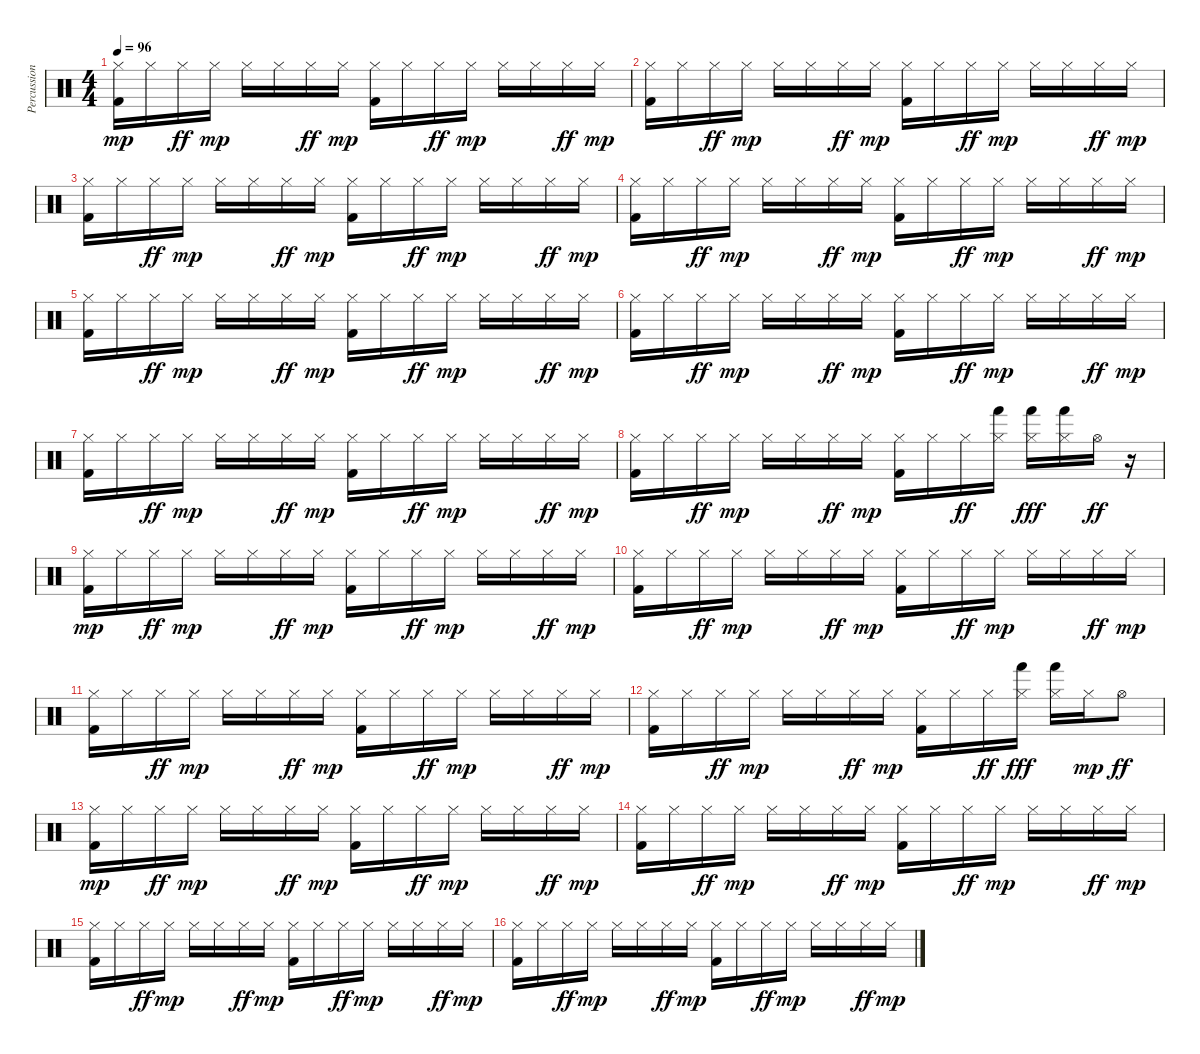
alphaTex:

\track ("Percussions" "Percussion") {instrument percussion}
\staff {score}
\articulation defaults
\ts (4 4)
\tempo 96
\clef neutral
\ks c
("Hi-Hat (closed)" "Kick (hit) 2").16{dy mp} "Hi-Hat (closed)".16 "Hi-Hat (closed)".16{dy ff} "Hi-Hat (closed)".16{dy mp} "Hi-Hat (closed)".16 "Hi-Hat (closed)".16 "Hi-Hat (closed)".16{dy ff} "Hi-Hat (closed)".16{dy mp} ("Hi-Hat (closed)" "Kick (hit) 2").16 "Hi-Hat (closed)".16 "Hi-Hat (closed)".16{dy ff} "Hi-Hat (closed)".16{dy mp} "Hi-Hat (closed)".16 "Hi-Hat (closed)".16 "Hi-Hat (closed)".16{dy ff} "Hi-Hat (closed)".16{dy mp} |
("Hi-Hat (closed)" "Kick (hit) 2").16 "Hi-Hat (closed)".16 "Hi-Hat (closed)".16{dy ff} "Hi-Hat (closed)".16{dy mp} "Hi-Hat (closed)".16 "Hi-Hat (closed)".16 "Hi-Hat (closed)".16{dy ff} "Hi-Hat (closed)".16{dy mp} ("Hi-Hat (closed)" "Kick (hit) 2").16 "Hi-Hat (closed)".16 "Hi-Hat (closed)".16{dy ff} "Hi-Hat (closed)".16{dy mp} "Hi-Hat (closed)".16 "Hi-Hat (closed)".16 "Hi-Hat (closed)".16{dy ff} "Hi-Hat (closed)".16{dy mp} |
("Hi-Hat (closed)" "Kick (hit) 2").16 "Hi-Hat (closed)".16 "Hi-Hat (closed)".16{dy ff} "Hi-Hat (closed)".16{dy mp} "Hi-Hat (closed)".16 "Hi-Hat (closed)".16 "Hi-Hat (closed)".16{dy ff} "Hi-Hat (closed)".16{dy mp} ("Hi-Hat (closed)" "Kick (hit) 2").16 "Hi-Hat (closed)".16 "Hi-Hat (closed)".16{dy ff} "Hi-Hat (closed)".16{dy mp} "Hi-Hat (closed)".16 "Hi-Hat (closed)".16 "Hi-Hat (closed)".16{dy ff} "Hi-Hat (closed)".16{dy mp} |
("Hi-Hat (closed)" "Kick (hit) 2").16 "Hi-Hat (closed)".16 "Hi-Hat (closed)".16{dy ff} "Hi-Hat (closed)".16{dy mp} "Hi-Hat (closed)".16 "Hi-Hat (closed)".16 "Hi-Hat (closed)".16{dy ff} "Hi-Hat (closed)".16{dy mp} ("Hi-Hat (closed)" "Kick (hit) 2").16 "Hi-Hat (closed)".16 "Hi-Hat (closed)".16{dy ff} "Hi-Hat (closed)".16{dy mp} "Hi-Hat (closed)".16 "Hi-Hat (closed)".16 "Hi-Hat (closed)".16{dy ff} "Hi-Hat (closed)".16{dy mp} |
("Hi-Hat (closed)" "Kick (hit) 2").16 "Hi-Hat (closed)".16 "Hi-Hat (closed)".16{dy ff} "Hi-Hat (closed)".16{dy mp} "Hi-Hat (closed)".16 "Hi-Hat (closed)".16 "Hi-Hat (closed)".16{dy ff} "Hi-Hat (closed)".16{dy mp} ("Hi-Hat (closed)" "Kick (hit) 2").16 "Hi-Hat (closed)".16 "Hi-Hat (closed)".16{dy ff} "Hi-Hat (closed)".16{dy mp} "Hi-Hat (closed)".16 "Hi-Hat (closed)".16 "Hi-Hat (closed)".16{dy ff} "Hi-Hat (closed)".16{dy mp} |
("Hi-Hat (closed)" "Kick (hit) 2").16 "Hi-Hat (closed)".16 "Hi-Hat (closed)".16{dy ff} "Hi-Hat (closed)".16{dy mp} "Hi-Hat (closed)".16 "Hi-Hat (closed)".16 "Hi-Hat (closed)".16{dy ff} "Hi-Hat (closed)".16{dy mp} ("Hi-Hat (closed)" "Kick (hit) 2").16 "Hi-Hat (closed)".16 "Hi-Hat (closed)".16{dy ff} "Hi-Hat (closed)".16{dy mp} "Hi-Hat (closed)".16 "Hi-Hat (closed)".16 "Hi-Hat (closed)".16{dy ff} "Hi-Hat (closed)".16{dy mp} |
("Hi-Hat (closed)" "Kick (hit) 2").16 "Hi-Hat (closed)".16 "Hi-Hat (closed)".16{dy ff} "Hi-Hat (closed)".16{dy mp} "Hi-Hat (closed)".16 "Hi-Hat (closed)".16 "Hi-Hat (closed)".16{dy ff} "Hi-Hat (closed)".16{dy mp} ("Hi-Hat (closed)" "Kick (hit) 2").16 "Hi-Hat (closed)".16 "Hi-Hat (closed)".16{dy ff} "Hi-Hat (closed)".16{dy mp} "Hi-Hat (closed)".16 "Hi-Hat (closed)".16 "Hi-Hat (closed)".16{dy ff} "Hi-Hat (closed)".16{dy mp} |
("Hi-Hat (closed)" "Kick (hit) 2").16 "Hi-Hat (closed)".16 "Hi-Hat (closed)".16{dy ff} "Hi-Hat (closed)".16{dy mp} "Hi-Hat (closed)".16 "Hi-Hat (closed)".16 "Hi-Hat (closed)".16{dy ff} "Hi-Hat (closed)".16{dy mp} ("Hi-Hat (closed)" "Kick (hit) 2").16 "Hi-Hat (closed)".16 "Hi-Hat (closed)".16{dy ff} ("Hi-Hat (closed)" "Hand (hit)").16 ("Hi-Hat (closed)" "Hand (hit)").16{dy fff} ("Hi-Hat (closed)" "Hand (hit)").16 "Hi-Hat (open)".16{dy ff} r.16 |
("Hi-Hat (closed)" "Kick (hit) 2").16{dy mp} "Hi-Hat (closed)".16 "Hi-Hat (closed)".16{dy ff} "Hi-Hat (closed)".16{dy mp} "Hi-Hat (closed)".16 "Hi-Hat (closed)".16 "Hi-Hat (closed)".16{dy ff} "Hi-Hat (closed)".16{dy mp} ("Hi-Hat (closed)" "Kick (hit) 2").16 "Hi-Hat (closed)".16 "Hi-Hat (closed)".16{dy ff} "Hi-Hat (closed)".16{dy mp} "Hi-Hat (closed)".16 "Hi-Hat (closed)".16 "Hi-Hat (closed)".16{dy ff} "Hi-Hat (closed)".16{dy mp} |
("Hi-Hat (closed)" "Kick (hit) 2").16 "Hi-Hat (closed)".16 "Hi-Hat (closed)".16{dy ff} "Hi-Hat (closed)".16{dy mp} "Hi-Hat (closed)".16 "Hi-Hat (closed)".16 "Hi-Hat (closed)".16{dy ff} "Hi-Hat (closed)".16{dy mp} ("Hi-Hat (closed)" "Kick (hit) 2").16 "Hi-Hat (closed)".16 "Hi-Hat (closed)".16{dy ff} "Hi-Hat (closed)".16{dy mp} "Hi-Hat (closed)".16 "Hi-Hat (closed)".16 "Hi-Hat (closed)".16{dy ff} "Hi-Hat (closed)".16{dy mp} |
("Hi-Hat (closed)" "Kick (hit) 2").16 "Hi-Hat (closed)".16 "Hi-Hat (closed)".16{dy ff} "Hi-Hat (closed)".16{dy mp} "Hi-Hat (closed)".16 "Hi-Hat (closed)".16 "Hi-Hat (closed)".16{dy ff} "Hi-Hat (closed)".16{dy mp} ("Hi-Hat (closed)" "Kick (hit) 2").16 "Hi-Hat (closed)".16 "Hi-Hat (closed)".16{dy ff} "Hi-Hat (closed)".16{dy mp} "Hi-Hat (closed)".16 "Hi-Hat (closed)".16 "Hi-Hat (closed)".16{dy ff} "Hi-Hat (closed)".16{dy mp} |
("Hi-Hat (closed)" "Kick (hit) 2").16 "Hi-Hat (closed)".16 "Hi-Hat (closed)".16{dy ff} "Hi-Hat (closed)".16{dy mp} "Hi-Hat (closed)".16 "Hi-Hat (closed)".16 "Hi-Hat (closed)".16{dy ff} "Hi-Hat (closed)".16{dy mp} ("Hi-Hat (closed)" "Kick (hit) 2").16 "Hi-Hat (closed)".16 "Hi-Hat (closed)".16{dy ff} ("Hi-Hat (closed)" "Hand (hit)").16{dy fff} ("Hi-Hat (closed)" "Hand (hit)").16 "Hi-Hat (closed)".16{dy mp} "Hi-Hat (open)".8{dy ff} |
("Hi-Hat (closed)" "Kick (hit) 2").16{dy mp} "Hi-Hat (closed)".16 "Hi-Hat (closed)".16{dy ff} "Hi-Hat (closed)".16{dy mp} "Hi-Hat (closed)".16 "Hi-Hat (closed)".16 "Hi-Hat (closed)".16{dy ff} "Hi-Hat (closed)".16{dy mp} ("Hi-Hat (closed)" "Kick (hit) 2").16 "Hi-Hat (closed)".16 "Hi-Hat (closed)".16{dy ff} "Hi-Hat (closed)".16{dy mp} "Hi-Hat (closed)".16 "Hi-Hat (closed)".16 "Hi-Hat (closed)".16{dy ff} "Hi-Hat (closed)".16{dy mp} |
("Hi-Hat (closed)" "Kick (hit) 2").16 "Hi-Hat (closed)".16 "Hi-Hat (closed)".16{dy ff} "Hi-Hat (closed)".16{dy mp} "Hi-Hat (closed)".16 "Hi-Hat (closed)".16 "Hi-Hat (closed)".16{dy ff} "Hi-Hat (closed)".16{dy mp} ("Hi-Hat (closed)" "Kick (hit) 2").16 "Hi-Hat (closed)".16 "Hi-Hat (closed)".16{dy ff} "Hi-Hat (closed)".16{dy mp} "Hi-Hat (closed)".16 "Hi-Hat (closed)".16 "Hi-Hat (closed)".16{dy ff} "Hi-Hat (closed)".16{dy mp} |
("Hi-Hat (closed)" "Kick (hit) 2").16 "Hi-Hat (closed)".16 "Hi-Hat (closed)".16{dy ff} "Hi-Hat (closed)".16{dy mp} "Hi-Hat (closed)".16 "Hi-Hat (closed)".16 "Hi-Hat (closed)".16{dy ff} "Hi-Hat (closed)".16{dy mp} ("Hi-Hat (closed)" "Kick (hit) 2").16 "Hi-Hat (closed)".16 "Hi-Hat (closed)".16{dy ff} "Hi-Hat (closed)".16{dy mp} "Hi-Hat (closed)".16 "Hi-Hat (closed)".16 "Hi-Hat (closed)".16{dy ff} "Hi-Hat (closed)".16{dy mp} |
("Hi-Hat (closed)" "Kick (hit) 2").16 "Hi-Hat (closed)".16 "Hi-Hat (closed)".16{dy ff} "Hi-Hat (closed)".16{dy mp} "Hi-Hat (closed)".16 "Hi-Hat (closed)".16 "Hi-Hat (closed)".16{dy ff} "Hi-Hat (closed)".16{dy mp} ("Hi-Hat (closed)" "Kick (hit) 2").16 "Hi-Hat (closed)".16 "Hi-Hat (closed)".16{dy ff} "Hi-Hat (closed)".16{dy mp} "Hi-Hat (closed)".16 "Hi-Hat (closed)".16 "Hi-Hat (closed)".16{dy ff} "Hi-Hat (closed)".16{dy mp}
